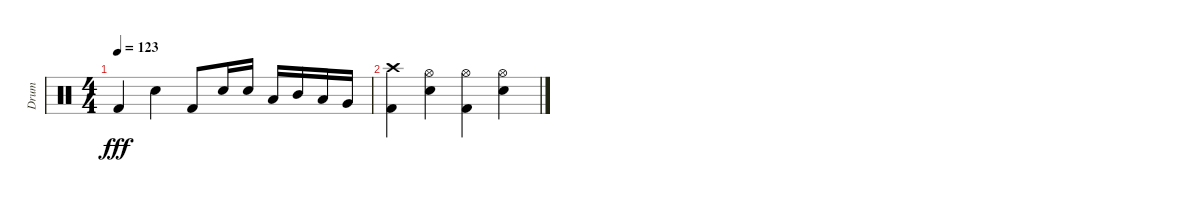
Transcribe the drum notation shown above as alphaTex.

\track ("Drum" "Drum") {instrument percussion}
\staff {score}
\articulation defaults
\ts (4 4)
\tempo 123
\clef neutral
\ks c "Kick (hit) 2".4{dy fff} "Electric Snare (hit)".4 "Kick (hit) 2".8 "Electric Snare (hit)".16 "Electric Snare (hit)".16 "Low Tom (hit)".16 "Mid Tom (hit)".16 "Low Tom (hit)".16 "Very Low Tom (hit)".16
|
("Crash high (hit)" "Kick (hit) 2").4{volume 0} ("Hi-Hat (open)" "Electric Snare (hit)").4 ("Hi-Hat (open)" "Kick (hit) 2").4 ("Hi-Hat (open)" "Electric Snare (hit)").4
